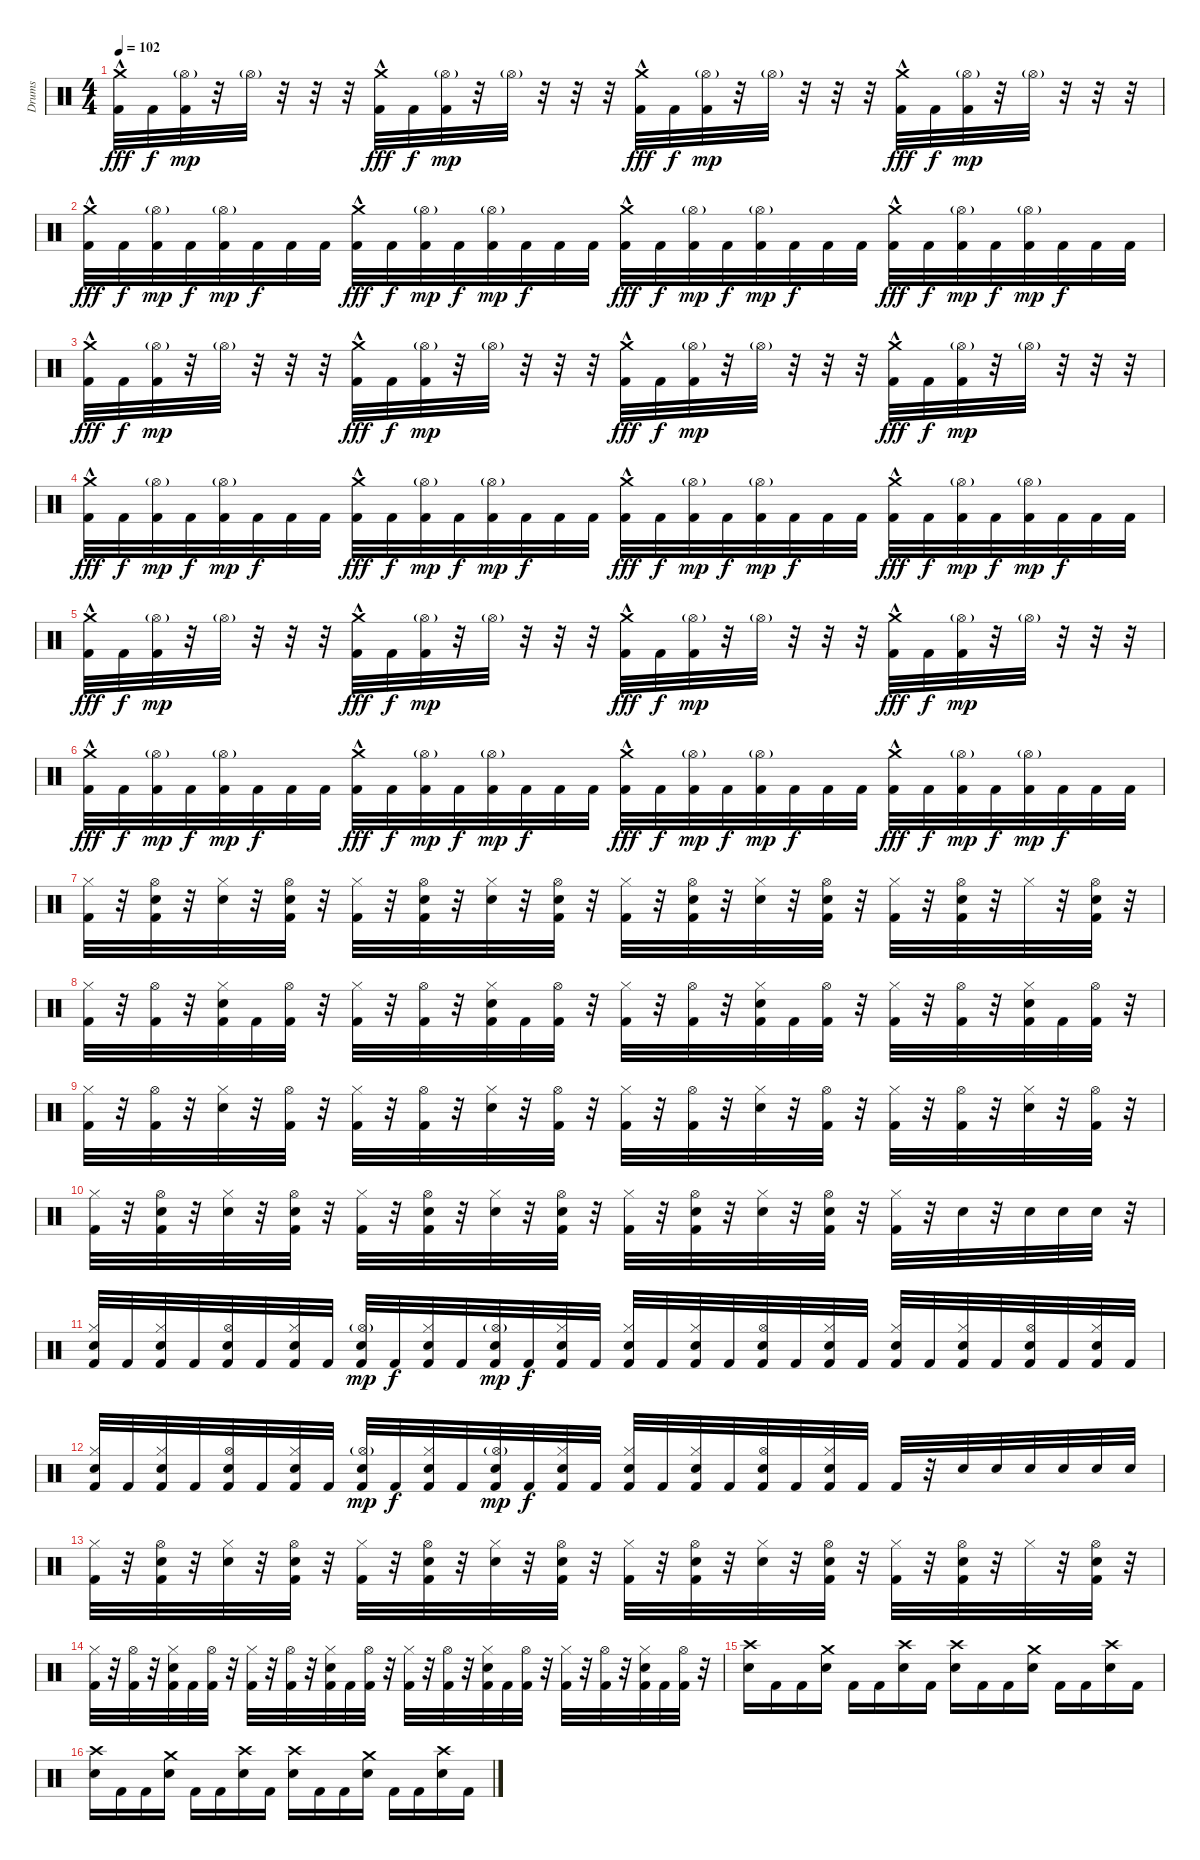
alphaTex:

\track ("Drums" "Drums") {instrument percussion}
\staff {score}
\articulation defaults
\ts (4 4)
\tempo 102
\clef neutral
\ks c
("Crash medium (hit)"{hac} "Kick (hit) 2").32{dy fff} "Kick (hit) 2".32{dy f} ("Hi-Hat (open)"{g} "Kick (hit) 2").32{dy mp} r.32 "Hi-Hat (open)"{g}.32 r.32 r.32 r.32 ("Crash medium (hit)"{hac} "Kick (hit) 2").32{dy fff} "Kick (hit) 2".32{dy f} ("Hi-Hat (open)"{g} "Kick (hit) 2").32{dy mp} r.32 "Hi-Hat (open)"{g}.32 r.32 r.32 r.32 ("Crash medium (hit)"{hac} "Kick (hit) 2").32{dy fff} "Kick (hit) 2".32{dy f} ("Hi-Hat (open)"{g} "Kick (hit) 2").32{dy mp} r.32 "Hi-Hat (open)"{g}.32 r.32 r.32 r.32 ("Crash medium (hit)"{hac} "Kick (hit) 2").32{dy fff} "Kick (hit) 2".32{dy f} ("Hi-Hat (open)"{g} "Kick (hit) 2").32{dy mp} r.32 "Hi-Hat (open)"{g}.32 r.32 r.32 r.32 |
("Crash medium (hit)"{hac} "Kick (hit) 2").32{dy fff} "Kick (hit) 2".32{dy f} ("Hi-Hat (open)"{g} "Kick (hit) 2").32{dy mp} "Kick (hit) 2".32{dy f} ("Hi-Hat (open)"{g} "Kick (hit) 2").32{dy mp} "Kick (hit) 2".32{dy f} "Kick (hit) 2".32 "Kick (hit) 2".32 ("Crash medium (hit)"{hac} "Kick (hit) 2").32{dy fff} "Kick (hit) 2".32{dy f} ("Hi-Hat (open)"{g} "Kick (hit) 2").32{dy mp} "Kick (hit) 2".32{dy f} ("Hi-Hat (open)"{g} "Kick (hit) 2").32{dy mp} "Kick (hit) 2".32{dy f} "Kick (hit) 2".32 "Kick (hit) 2".32 ("Crash medium (hit)"{hac} "Kick (hit) 2").32{dy fff} "Kick (hit) 2".32{dy f} ("Hi-Hat (open)"{g} "Kick (hit) 2").32{dy mp} "Kick (hit) 2".32{dy f} ("Hi-Hat (open)"{g} "Kick (hit) 2").32{dy mp} "Kick (hit) 2".32{dy f} "Kick (hit) 2".32 "Kick (hit) 2".32 ("Crash medium (hit)"{hac} "Kick (hit) 2").32{dy fff} "Kick (hit) 2".32{dy f} ("Hi-Hat (open)"{g} "Kick (hit) 2").32{dy mp} "Kick (hit) 2".32{dy f} ("Hi-Hat (open)"{g} "Kick (hit) 2").32{dy mp} "Kick (hit) 2".32{dy f} "Kick (hit) 2".32 "Kick (hit) 2".32 |
("Crash medium (hit)"{hac} "Kick (hit) 2").32{dy fff} "Kick (hit) 2".32{dy f} ("Hi-Hat (open)"{g} "Kick (hit) 2").32{dy mp} r.32 "Hi-Hat (open)"{g}.32 r.32 r.32 r.32 ("Crash medium (hit)"{hac} "Kick (hit) 2").32{dy fff} "Kick (hit) 2".32{dy f} ("Hi-Hat (open)"{g} "Kick (hit) 2").32{dy mp} r.32 "Hi-Hat (open)"{g}.32 r.32 r.32 r.32 ("Crash medium (hit)"{hac} "Kick (hit) 2").32{dy fff} "Kick (hit) 2".32{dy f} ("Hi-Hat (open)"{g} "Kick (hit) 2").32{dy mp} r.32 "Hi-Hat (open)"{g}.32 r.32 r.32 r.32 ("Crash medium (hit)"{hac} "Kick (hit) 2").32{dy fff} "Kick (hit) 2".32{dy f} ("Hi-Hat (open)"{g} "Kick (hit) 2").32{dy mp} r.32 "Hi-Hat (open)"{g}.32 r.32 r.32 r.32 |
("Crash medium (hit)"{hac} "Kick (hit) 2").32{dy fff} "Kick (hit) 2".32{dy f} ("Hi-Hat (open)"{g} "Kick (hit) 2").32{dy mp} "Kick (hit) 2".32{dy f} ("Hi-Hat (open)"{g} "Kick (hit) 2").32{dy mp} "Kick (hit) 2".32{dy f} "Kick (hit) 2".32 "Kick (hit) 2".32 ("Crash medium (hit)"{hac} "Kick (hit) 2").32{dy fff} "Kick (hit) 2".32{dy f} ("Hi-Hat (open)"{g} "Kick (hit) 2").32{dy mp} "Kick (hit) 2".32{dy f} ("Hi-Hat (open)"{g} "Kick (hit) 2").32{dy mp} "Kick (hit) 2".32{dy f} "Kick (hit) 2".32 "Kick (hit) 2".32 ("Crash medium (hit)"{hac} "Kick (hit) 2").32{dy fff} "Kick (hit) 2".32{dy f} ("Hi-Hat (open)"{g} "Kick (hit) 2").32{dy mp} "Kick (hit) 2".32{dy f} ("Hi-Hat (open)"{g} "Kick (hit) 2").32{dy mp} "Kick (hit) 2".32{dy f} "Kick (hit) 2".32 "Kick (hit) 2".32 ("Crash medium (hit)"{hac} "Kick (hit) 2").32{dy fff} "Kick (hit) 2".32{dy f} ("Hi-Hat (open)"{g} "Kick (hit) 2").32{dy mp} "Kick (hit) 2".32{dy f} ("Hi-Hat (open)"{g} "Kick (hit) 2").32{dy mp} "Kick (hit) 2".32{dy f} "Kick (hit) 2".32 "Kick (hit) 2".32 |
("Crash medium (hit)"{hac} "Kick (hit) 2").32{dy fff} "Kick (hit) 2".32{dy f} ("Hi-Hat (open)"{g} "Kick (hit) 2").32{dy mp} r.32 "Hi-Hat (open)"{g}.32 r.32 r.32 r.32 ("Crash medium (hit)"{hac} "Kick (hit) 2").32{dy fff} "Kick (hit) 2".32{dy f} ("Hi-Hat (open)"{g} "Kick (hit) 2").32{dy mp} r.32 "Hi-Hat (open)"{g}.32 r.32 r.32 r.32 ("Crash medium (hit)"{hac} "Kick (hit) 2").32{dy fff} "Kick (hit) 2".32{dy f} ("Hi-Hat (open)"{g} "Kick (hit) 2").32{dy mp} r.32 "Hi-Hat (open)"{g}.32 r.32 r.32 r.32 ("Crash medium (hit)"{hac} "Kick (hit) 2").32{dy fff} "Kick (hit) 2".32{dy f} ("Hi-Hat (open)"{g} "Kick (hit) 2").32{dy mp} r.32 "Hi-Hat (open)"{g}.32 r.32 r.32 r.32 |
("Crash medium (hit)"{hac} "Kick (hit) 2").32{dy fff} "Kick (hit) 2".32{dy f} ("Hi-Hat (open)"{g} "Kick (hit) 2").32{dy mp} "Kick (hit) 2".32{dy f} ("Hi-Hat (open)"{g} "Kick (hit) 2").32{dy mp} "Kick (hit) 2".32{dy f} "Kick (hit) 2".32 "Kick (hit) 2".32 ("Crash medium (hit)"{hac} "Kick (hit) 2").32{dy fff} "Kick (hit) 2".32{dy f} ("Hi-Hat (open)"{g} "Kick (hit) 2").32{dy mp} "Kick (hit) 2".32{dy f} ("Hi-Hat (open)"{g} "Kick (hit) 2").32{dy mp} "Kick (hit) 2".32{dy f} "Kick (hit) 2".32 "Kick (hit) 2".32 ("Crash medium (hit)"{hac} "Kick (hit) 2").32{dy fff} "Kick (hit) 2".32{dy f} ("Hi-Hat (open)"{g} "Kick (hit) 2").32{dy mp} "Kick (hit) 2".32{dy f} ("Hi-Hat (open)"{g} "Kick (hit) 2").32{dy mp} "Kick (hit) 2".32{dy f} "Kick (hit) 2".32 "Kick (hit) 2".32 ("Crash medium (hit)"{hac} "Kick (hit) 2").32{dy fff} "Kick (hit) 2".32{dy f} ("Hi-Hat (open)"{g} "Kick (hit) 2").32{dy mp} "Kick (hit) 2".32{dy f} ("Hi-Hat (open)"{g} "Kick (hit) 2").32{dy mp} "Kick (hit) 2".32{dy f} "Kick (hit) 2".32 "Kick (hit) 2".32 |
("Hi-Hat (closed)" "Kick (hit) 2").32 r.32 ("Hi-Hat (open)" "Electric Snare (hit)" "Kick (hit) 2").32 r.32 ("Hi-Hat (closed)" "Electric Snare (hit)").32 r.32 ("Hi-Hat (open)" "Electric Snare (hit)" "Kick (hit) 2").32 r.32 ("Hi-Hat (closed)" "Kick (hit) 2").32 r.32 ("Hi-Hat (open)" "Electric Snare (hit)" "Kick (hit) 2").32 r.32 ("Hi-Hat (closed)" "Electric Snare (hit)").32 r.32 ("Hi-Hat (open)" "Electric Snare (hit)" "Kick (hit) 2").32 r.32 ("Hi-Hat (closed)" "Kick (hit) 2").32 r.32 ("Hi-Hat (open)" "Electric Snare (hit)" "Kick (hit) 2").32 r.32 ("Hi-Hat (closed)" "Electric Snare (hit)").32 r.32 ("Hi-Hat (open)" "Electric Snare (hit)" "Kick (hit) 2").32 r.32 ("Hi-Hat (closed)" "Kick (hit) 2").32 r.32 ("Hi-Hat (open)" "Electric Snare (hit)" "Kick (hit) 2").32 r.32 "Hi-Hat (closed)".32 r.32 ("Hi-Hat (open)" "Electric Snare (hit)" "Kick (hit) 2").32 r.32 |
("Hi-Hat (closed)" "Kick (hit) 2").32 r.32 ("Hi-Hat (open)" "Kick (hit) 2").32 r.32 ("Hi-Hat (closed)" "Electric Snare (hit)" "Kick (hit) 2").32 "Kick (hit) 2".32 ("Hi-Hat (open)" "Kick (hit) 2").32 r.32 ("Hi-Hat (closed)" "Kick (hit) 2").32 r.32 ("Hi-Hat (open)" "Kick (hit) 2").32 r.32 ("Hi-Hat (closed)" "Electric Snare (hit)" "Kick (hit) 2").32 "Kick (hit) 2".32 ("Hi-Hat (open)" "Kick (hit) 2").32 r.32 ("Hi-Hat (closed)" "Kick (hit) 2").32 r.32 ("Hi-Hat (open)" "Kick (hit) 2").32 r.32 ("Hi-Hat (closed)" "Electric Snare (hit)" "Kick (hit) 2").32 "Kick (hit) 2".32 ("Hi-Hat (open)" "Kick (hit) 2").32 r.32 ("Hi-Hat (closed)" "Kick (hit) 2").32 r.32 ("Hi-Hat (open)" "Kick (hit) 2").32 r.32 ("Hi-Hat (closed)" "Electric Snare (hit)" "Kick (hit) 2").32 "Kick (hit) 2".32 ("Hi-Hat (open)" "Kick (hit) 2").32 r.32 |
("Hi-Hat (closed)" "Kick (hit) 2").32 r.32 ("Hi-Hat (open)" "Kick (hit) 2").32 r.32 ("Hi-Hat (closed)" "Electric Snare (hit)").32 r.32 ("Hi-Hat (open)" "Kick (hit) 2").32 r.32 ("Hi-Hat (closed)" "Kick (hit) 2").32 r.32 ("Hi-Hat (open)" "Kick (hit) 2").32 r.32 ("Hi-Hat (closed)" "Electric Snare (hit)").32 r.32 ("Hi-Hat (open)" "Kick (hit) 2").32 r.32 ("Hi-Hat (closed)" "Kick (hit) 2").32 r.32 ("Hi-Hat (open)" "Kick (hit) 2").32 r.32 ("Hi-Hat (closed)" "Electric Snare (hit)").32 r.32 ("Hi-Hat (open)" "Kick (hit) 2").32 r.32 ("Hi-Hat (closed)" "Kick (hit) 2").32 r.32 ("Hi-Hat (open)" "Kick (hit) 2").32 r.32 ("Hi-Hat (closed)" "Electric Snare (hit)").32 r.32 ("Hi-Hat (open)" "Kick (hit) 2").32 r.32 |
("Hi-Hat (closed)" "Kick (hit) 2").32 r.32 ("Hi-Hat (open)" "Electric Snare (hit)" "Kick (hit) 2").32 r.32 ("Hi-Hat (closed)" "Electric Snare (hit)").32 r.32 ("Hi-Hat (open)" "Electric Snare (hit)" "Kick (hit) 2").32 r.32 ("Hi-Hat (closed)" "Kick (hit) 2").32 r.32 ("Hi-Hat (open)" "Electric Snare (hit)" "Kick (hit) 2").32 r.32 ("Hi-Hat (closed)" "Electric Snare (hit)").32 r.32 ("Hi-Hat (open)" "Electric Snare (hit)" "Kick (hit) 2").32 r.32 ("Hi-Hat (closed)" "Kick (hit) 2").32 r.32 ("Hi-Hat (open)" "Electric Snare (hit)" "Kick (hit) 2").32 r.32 ("Hi-Hat (closed)" "Electric Snare (hit)").32 r.32 ("Hi-Hat (open)" "Electric Snare (hit)" "Kick (hit) 2").32 r.32 ("Hi-Hat (closed)" "Kick (hit) 2").32 r.32 "Electric Snare (hit)".32 r.32 "Electric Snare (hit)".32 "Electric Snare (hit)".32 "Electric Snare (hit)".32 r.32 |
("Hi-Hat (closed)" "Electric Snare (hit)" "Kick (hit) 2").32 "Kick (hit) 2".32 ("Hi-Hat (closed)" "Electric Snare (hit)" "Kick (hit) 2").32 "Kick (hit) 2".32 ("Hi-Hat (open)" "Electric Snare (hit)" "Kick (hit) 2").32 "Kick (hit) 2".32 ("Hi-Hat (closed)" "Electric Snare (hit)" "Kick (hit) 2").32 "Kick (hit) 2".32 ("Hi-Hat (open)"{g} "Electric Snare (hit)" "Kick (hit) 2").32{dy mp} "Kick (hit) 2".32{dy f} ("Hi-Hat (closed)" "Electric Snare (hit)" "Kick (hit) 2").32 "Kick (hit) 2".32 ("Hi-Hat (open)"{g} "Electric Snare (hit)" "Kick (hit) 2").32{dy mp} "Kick (hit) 2".32{dy f} ("Hi-Hat (closed)" "Electric Snare (hit)" "Kick (hit) 2").32 "Kick (hit) 2".32 ("Hi-Hat (closed)" "Electric Snare (hit)" "Kick (hit) 2").32 "Kick (hit) 2".32 ("Hi-Hat (closed)" "Electric Snare (hit)" "Kick (hit) 2").32 "Kick (hit) 2".32 ("Hi-Hat (open)" "Electric Snare (hit)" "Kick (hit) 2").32 "Kick (hit) 2".32 ("Hi-Hat (closed)" "Electric Snare (hit)" "Kick (hit) 2").32 "Kick (hit) 2".32 ("Hi-Hat (closed)" "Electric Snare (hit)" "Kick (hit) 2").32 "Kick (hit) 2".32 ("Hi-Hat (closed)" "Electric Snare (hit)" "Kick (hit) 2").32 "Kick (hit) 2".32 ("Hi-Hat (open)" "Electric Snare (hit)" "Kick (hit) 2").32 "Kick (hit) 2".32 ("Hi-Hat (closed)" "Electric Snare (hit)" "Kick (hit) 2").32 "Kick (hit) 2".32 |
("Hi-Hat (closed)" "Electric Snare (hit)" "Kick (hit) 2").32 "Kick (hit) 2".32 ("Hi-Hat (closed)" "Electric Snare (hit)" "Kick (hit) 2").32 "Kick (hit) 2".32 ("Hi-Hat (open)" "Electric Snare (hit)" "Kick (hit) 2").32 "Kick (hit) 2".32 ("Hi-Hat (closed)" "Electric Snare (hit)" "Kick (hit) 2").32 "Kick (hit) 2".32 ("Hi-Hat (open)"{g} "Electric Snare (hit)" "Kick (hit) 2").32{dy mp} "Kick (hit) 2".32{dy f} ("Hi-Hat (closed)" "Electric Snare (hit)" "Kick (hit) 2").32 "Kick (hit) 2".32 ("Hi-Hat (open)"{g} "Electric Snare (hit)" "Kick (hit) 2").32{dy mp} "Kick (hit) 2".32{dy f} ("Hi-Hat (closed)" "Electric Snare (hit)" "Kick (hit) 2").32 "Kick (hit) 2".32 ("Hi-Hat (closed)" "Electric Snare (hit)" "Kick (hit) 2").32 "Kick (hit) 2".32 ("Hi-Hat (closed)" "Electric Snare (hit)" "Kick (hit) 2").32 "Kick (hit) 2".32 ("Hi-Hat (open)" "Electric Snare (hit)" "Kick (hit) 2").32 "Kick (hit) 2".32 ("Hi-Hat (closed)" "Electric Snare (hit)" "Kick (hit) 2").32 "Kick (hit) 2".32 "Kick (hit) 2".32 r.32 "Electric Snare (hit)".32 "Electric Snare (hit)".32 "Electric Snare (hit)".32 "Electric Snare (hit)".32 "Electric Snare (hit)".32 "Electric Snare (hit)".32 |
("Hi-Hat (closed)" "Kick (hit) 2").32 r.32 ("Hi-Hat (open)" "Electric Snare (hit)" "Kick (hit) 2").32 r.32 ("Hi-Hat (closed)" "Electric Snare (hit)").32 r.32 ("Hi-Hat (open)" "Electric Snare (hit)" "Kick (hit) 2").32 r.32 ("Hi-Hat (closed)" "Kick (hit) 2").32 r.32 ("Hi-Hat (open)" "Electric Snare (hit)" "Kick (hit) 2").32 r.32 ("Hi-Hat (closed)" "Electric Snare (hit)").32 r.32 ("Hi-Hat (open)" "Electric Snare (hit)" "Kick (hit) 2").32 r.32 ("Hi-Hat (closed)" "Kick (hit) 2").32 r.32 ("Hi-Hat (open)" "Electric Snare (hit)" "Kick (hit) 2").32 r.32 ("Hi-Hat (closed)" "Electric Snare (hit)").32 r.32 ("Hi-Hat (open)" "Electric Snare (hit)" "Kick (hit) 2").32 r.32 ("Hi-Hat (closed)" "Kick (hit) 2").32 r.32 ("Hi-Hat (open)" "Electric Snare (hit)" "Kick (hit) 2").32 r.32 "Hi-Hat (closed)".32 r.32 ("Hi-Hat (open)" "Electric Snare (hit)" "Kick (hit) 2").32 r.32 |
("Hi-Hat (closed)" "Kick (hit) 2").32 r.32 ("Hi-Hat (open)" "Kick (hit) 2").32 r.32 ("Hi-Hat (closed)" "Electric Snare (hit)" "Kick (hit) 2").32 "Kick (hit) 2".32 ("Hi-Hat (open)" "Kick (hit) 2").32 r.32 ("Hi-Hat (closed)" "Kick (hit) 2").32 r.32 ("Hi-Hat (open)" "Kick (hit) 2").32 r.32 ("Hi-Hat (closed)" "Electric Snare (hit)" "Kick (hit) 2").32 "Kick (hit) 2".32 ("Hi-Hat (open)" "Kick (hit) 2").32 r.32 ("Hi-Hat (closed)" "Kick (hit) 2").32 r.32 ("Hi-Hat (open)" "Kick (hit) 2").32 r.32 ("Hi-Hat (closed)" "Electric Snare (hit)" "Kick (hit) 2").32 "Kick (hit) 2".32 ("Hi-Hat (open)" "Kick (hit) 2").32 r.32 ("Hi-Hat (closed)" "Kick (hit) 2").32 r.32 ("Hi-Hat (open)" "Kick (hit) 2").32 r.32 ("Hi-Hat (closed)" "Electric Snare (hit)" "Kick (hit) 2").32 "Kick (hit) 2".32 ("Hi-Hat (open)" "Kick (hit) 2").32 r.32 |
("Crash high (hit)" "Electric Snare (hit)").16 "Kick (hit) 2".16 "Kick (hit) 2".16 ("Crash medium (hit)" "Electric Snare (hit)").16 "Kick (hit) 2".16 "Kick (hit) 2".16 ("Crash high (hit)" "Electric Snare (hit)").16 "Kick (hit) 2".16 ("Crash high (hit)" "Electric Snare (hit)").16 "Kick (hit) 2".16 "Kick (hit) 2".16 ("Crash medium (hit)" "Electric Snare (hit)").16 "Kick (hit) 2".16 "Kick (hit) 2".16 ("Crash high (hit)" "Electric Snare (hit)").16 "Kick (hit) 2".16 |
("Crash high (hit)" "Electric Snare (hit)").16 "Kick (hit) 2".16 "Kick (hit) 2".16 ("Crash medium (hit)" "Electric Snare (hit)").16 "Kick (hit) 2".16 "Kick (hit) 2".16 ("Crash high (hit)" "Electric Snare (hit)").16 "Kick (hit) 2".16 ("Crash high (hit)" "Electric Snare (hit)").16 "Kick (hit) 2".16 "Kick (hit) 2".16 ("Crash medium (hit)" "Electric Snare (hit)").16 "Kick (hit) 2".16 "Kick (hit) 2".16 ("Crash high (hit)" "Electric Snare (hit)").16 "Kick (hit) 2".16
